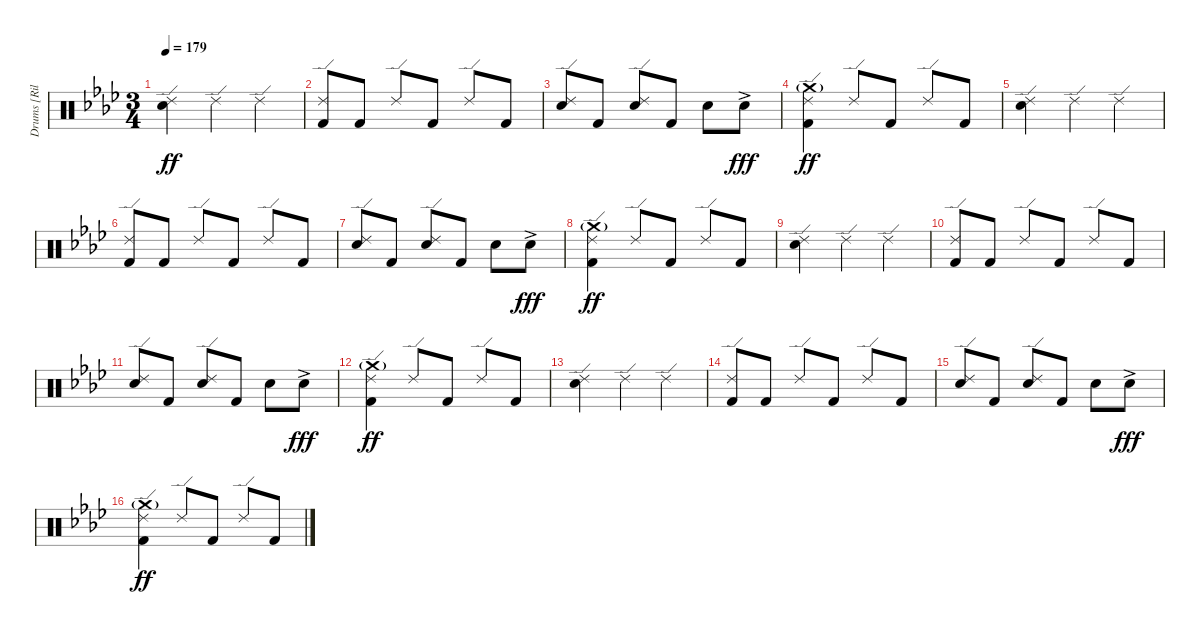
\track ("Drums [Riley]" "Drums [Ril") {instrument percussion}
\staff {score}
\articulation defaults
\ts (3 4)
\tempo 179
\clef neutral
\ks ab
("Ride (edge) 2" "Electric Snare (hit)").4{dy ff} "Ride (edge) 2".4 "Ride (edge) 2".4 |
("Ride (edge) 2" "Kick (hit) 2").8 "Kick (hit) 2".8 "Ride (edge) 2".8 "Kick (hit) 2".8 "Ride (edge) 2".8 "Kick (hit) 2".8 |
("Ride (edge) 2" "Electric Snare (hit)").8 "Kick (hit) 2".8 ("Ride (edge) 2" "Electric Snare (hit)").8 "Kick (hit) 2".8 "Electric Snare (hit)".8 "Electric Snare (hit)"{ac}.8{dy fff} |
("Crash medium (hit)"{g} "Ride (edge) 2" "Kick (hit) 2").4{dy ff} "Ride (edge) 2".8 "Kick (hit) 2".8 "Ride (edge) 2".8 "Kick (hit) 2".8 |
("Ride (edge) 2" "Electric Snare (hit)").4 "Ride (edge) 2".4 "Ride (edge) 2".4 |
("Ride (edge) 2" "Kick (hit) 2").8 "Kick (hit) 2".8 "Ride (edge) 2".8 "Kick (hit) 2".8 "Ride (edge) 2".8 "Kick (hit) 2".8 |
("Ride (edge) 2" "Electric Snare (hit)").8 "Kick (hit) 2".8 ("Ride (edge) 2" "Electric Snare (hit)").8 "Kick (hit) 2".8 "Electric Snare (hit)".8 "Electric Snare (hit)"{ac}.8{dy fff} |
("Crash medium (hit)"{g} "Ride (edge) 2" "Kick (hit) 2").4{dy ff} "Ride (edge) 2".8 "Kick (hit) 2".8 "Ride (edge) 2".8 "Kick (hit) 2".8 |
("Ride (edge) 2" "Electric Snare (hit)").4 "Ride (edge) 2".4 "Ride (edge) 2".4 |
("Ride (edge) 2" "Kick (hit) 2").8 "Kick (hit) 2".8 "Ride (edge) 2".8 "Kick (hit) 2".8 "Ride (edge) 2".8 "Kick (hit) 2".8 |
("Ride (edge) 2" "Electric Snare (hit)").8 "Kick (hit) 2".8 ("Ride (edge) 2" "Electric Snare (hit)").8 "Kick (hit) 2".8 "Electric Snare (hit)".8 "Electric Snare (hit)"{ac}.8{dy fff} |
("Crash medium (hit)"{g} "Ride (edge) 2" "Kick (hit) 2").4{dy ff} "Ride (edge) 2".8 "Kick (hit) 2".8 "Ride (edge) 2".8 "Kick (hit) 2".8 |
("Ride (edge) 2" "Electric Snare (hit)").4 "Ride (edge) 2".4 "Ride (edge) 2".4 |
("Ride (edge) 2" "Kick (hit) 2").8 "Kick (hit) 2".8 "Ride (edge) 2".8 "Kick (hit) 2".8 "Ride (edge) 2".8 "Kick (hit) 2".8 |
("Ride (edge) 2" "Electric Snare (hit)").8 "Kick (hit) 2".8 ("Ride (edge) 2" "Electric Snare (hit)").8 "Kick (hit) 2".8 "Electric Snare (hit)".8 "Electric Snare (hit)"{ac}.8{dy fff} |
("Crash medium (hit)"{g} "Ride (edge) 2" "Kick (hit) 2").4{dy ff} "Ride (edge) 2".8 "Kick (hit) 2".8 "Ride (edge) 2".8 "Kick (hit) 2".8
